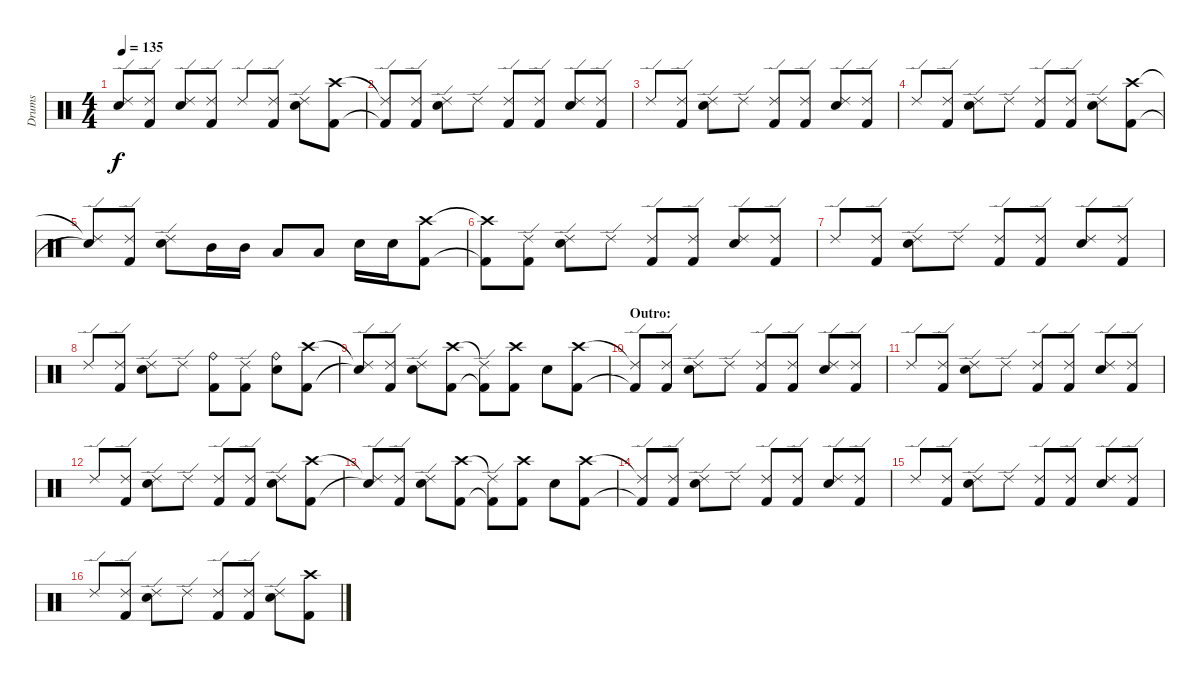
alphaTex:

\track ("Drums" "Drums") {instrument percussion}
\staff {score}
\articulation defaults
\ts (4 4)
\tempo 135
\clef neutral
\ks c
("Ride (edge) 2"{t} "Snare (hit)"{t}).8{dy f} ("Ride (edge) 2" "Kick (hit) 2").8 ("Ride (edge) 2" "Electric Snare (hit)").8 ("Ride (edge) 2" "Kick (hit) 2").8 "Ride (edge) 2".8 ("Ride (edge) 2" "Kick (hit) 2").8 ("Ride (edge) 2" "Electric Snare (hit)").8 ("Crash high (hit)" "Kick (hit) 2").8 |
("Ride (edge) 2"{t} "Kick (hit) 2"{t}).8 ("Ride (edge) 2" "Kick (hit) 2").8 ("Ride (edge) 2" "Electric Snare (hit)").8 "Ride (edge) 2".8 ("Ride (edge) 2" "Kick (hit) 2").8 ("Ride (edge) 2" "Kick (hit) 2").8 ("Ride (edge) 2" "Electric Snare (hit)").8 ("Ride (edge) 2" "Kick (hit) 2").8 |
"Ride (edge) 2".8 ("Ride (edge) 2" "Kick (hit) 2").8 ("Ride (edge) 2" "Electric Snare (hit)").8 "Ride (edge) 2".8 ("Ride (edge) 2" "Kick (hit) 2").8 ("Ride (edge) 2" "Kick (hit) 2").8 ("Ride (edge) 2" "Electric Snare (hit)").8 ("Ride (edge) 2" "Kick (hit) 2").8 |
"Ride (edge) 2".8 ("Ride (edge) 2" "Kick (hit) 2").8 ("Ride (edge) 2" "Electric Snare (hit)").8 "Ride (edge) 2".8 ("Ride (edge) 2" "Kick (hit) 2").8 ("Ride (edge) 2" "Kick (hit) 2").8 ("Ride (edge) 2" "Electric Snare (hit)").8 ("Crash high (hit)" "Kick (hit) 2").8 |
("Ride (edge) 2"{t} "Snare (hit)"{t}).8 ("Ride (edge) 2" "Kick (hit) 2").8 ("Ride (edge) 2" "Electric Snare (hit)").8 "Mid Tom (hit)".16 "Mid Tom (hit)".16 "Low Tom (hit)".8 "Low Tom (hit)".8 "Electric Snare (hit)".16 "Electric Snare (hit)".16 ("Crash high (hit)" "Kick (hit) 2").8 |
("Crash high (hit)"{t} "Kick (hit) 2"{t}).8 ("Ride (edge) 2" "Kick (hit) 2").8 ("Ride (edge) 2" "Electric Snare (hit)").8 "Ride (edge) 2".8 ("Ride (edge) 2" "Kick (hit) 2").8 ("Ride (edge) 2" "Kick (hit) 2").8 ("Ride (edge) 2" "Electric Snare (hit)").8 ("Ride (edge) 2" "Kick (hit) 2").8 |
"Ride (edge) 2".8 ("Ride (edge) 2" "Kick (hit) 2").8 ("Ride (edge) 2" "Electric Snare (hit)").8 "Ride (edge) 2".8 ("Ride (edge) 2" "Kick (hit) 2").8 ("Ride (edge) 2" "Kick (hit) 2").8 ("Ride (edge) 2" "Electric Snare (hit)").8 ("Ride (edge) 2" "Kick (hit) 2").8 |
"Ride (edge) 2".8 ("Ride (edge) 2" "Kick (hit) 2").8 ("Ride (edge) 2" "Electric Snare (hit)").8 "Ride (edge) 2".8 ("Ride (bell)" "Kick (hit) 2").8 ("Ride (edge) 2" "Kick (hit) 2").8 ("Ride (bell)" "Electric Snare (hit)").8 ("Crash high (hit)" "Kick (hit) 2").8 |
("Ride (edge) 2"{t} "Snare (hit)"{t}).8 ("Ride (edge) 2" "Kick (hit) 2").8 ("Ride (edge) 2" "Electric Snare (hit)").8 ("Crash high (hit)" "Kick (hit) 2").8 ("Ride (edge) 2"{t} "Kick (hit) 2"{t}).8 ("Crash high (hit)" "Kick (hit) 2").8 "Electric Snare (hit)".8 ("Crash high (hit)" "Kick (hit) 2").8 |
\section ("" "Outro:")
("Ride (edge) 2"{t} "Kick (hit) 2"{t}).8 ("Ride (edge) 2" "Kick (hit) 2").8 ("Ride (edge) 2" "Electric Snare (hit)").8 "Ride (edge) 2".8 ("Ride (edge) 2" "Kick (hit) 2").8 ("Ride (edge) 2" "Kick (hit) 2").8 ("Ride (edge) 2" "Electric Snare (hit)").8 ("Ride (edge) 2" "Kick (hit) 2").8 |
"Ride (edge) 2".8 ("Ride (edge) 2" "Kick (hit) 2").8 ("Ride (edge) 2" "Electric Snare (hit)").8 "Ride (edge) 2".8 ("Ride (edge) 2" "Kick (hit) 2").8 ("Ride (edge) 2" "Kick (hit) 2").8 ("Ride (edge) 2" "Electric Snare (hit)").8 ("Ride (edge) 2" "Kick (hit) 2").8 |
"Ride (edge) 2".8 ("Ride (edge) 2" "Kick (hit) 2").8 ("Ride (edge) 2" "Electric Snare (hit)").8 "Ride (edge) 2".8 ("Ride (edge) 2" "Kick (hit) 2").8 ("Ride (edge) 2" "Kick (hit) 2").8 ("Ride (edge) 2" "Electric Snare (hit)").8 ("Crash high (hit)" "Kick (hit) 2").8 |
("Ride (edge) 2"{t} "Snare (hit)"{t}).8 ("Ride (edge) 2" "Kick (hit) 2").8 ("Ride (edge) 2" "Electric Snare (hit)").8 ("Crash high (hit)" "Kick (hit) 2").8 ("Ride (edge) 2"{t} "Kick (hit) 2"{t}).8 ("Crash high (hit)" "Kick (hit) 2").8 "Electric Snare (hit)".8 ("Crash high (hit)" "Kick (hit) 2").8 |
("Ride (edge) 2"{t} "Kick (hit) 2"{t}).8 ("Ride (edge) 2" "Kick (hit) 2").8 ("Ride (edge) 2" "Electric Snare (hit)").8 "Ride (edge) 2".8 ("Ride (edge) 2" "Kick (hit) 2").8 ("Ride (edge) 2" "Kick (hit) 2").8 ("Ride (edge) 2" "Electric Snare (hit)").8 ("Ride (edge) 2" "Kick (hit) 2").8 |
"Ride (edge) 2".8 ("Ride (edge) 2" "Kick (hit) 2").8 ("Ride (edge) 2" "Electric Snare (hit)").8 "Ride (edge) 2".8 ("Ride (edge) 2" "Kick (hit) 2").8 ("Ride (edge) 2" "Kick (hit) 2").8 ("Ride (edge) 2" "Electric Snare (hit)").8 ("Ride (edge) 2" "Kick (hit) 2").8 |
"Ride (edge) 2".8 ("Ride (edge) 2" "Kick (hit) 2").8 ("Ride (edge) 2" "Electric Snare (hit)").8 "Ride (edge) 2".8 ("Ride (edge) 2" "Kick (hit) 2").8 ("Ride (edge) 2" "Kick (hit) 2").8 ("Ride (edge) 2" "Electric Snare (hit)").8 ("Crash high (hit)" "Kick (hit) 2").8
